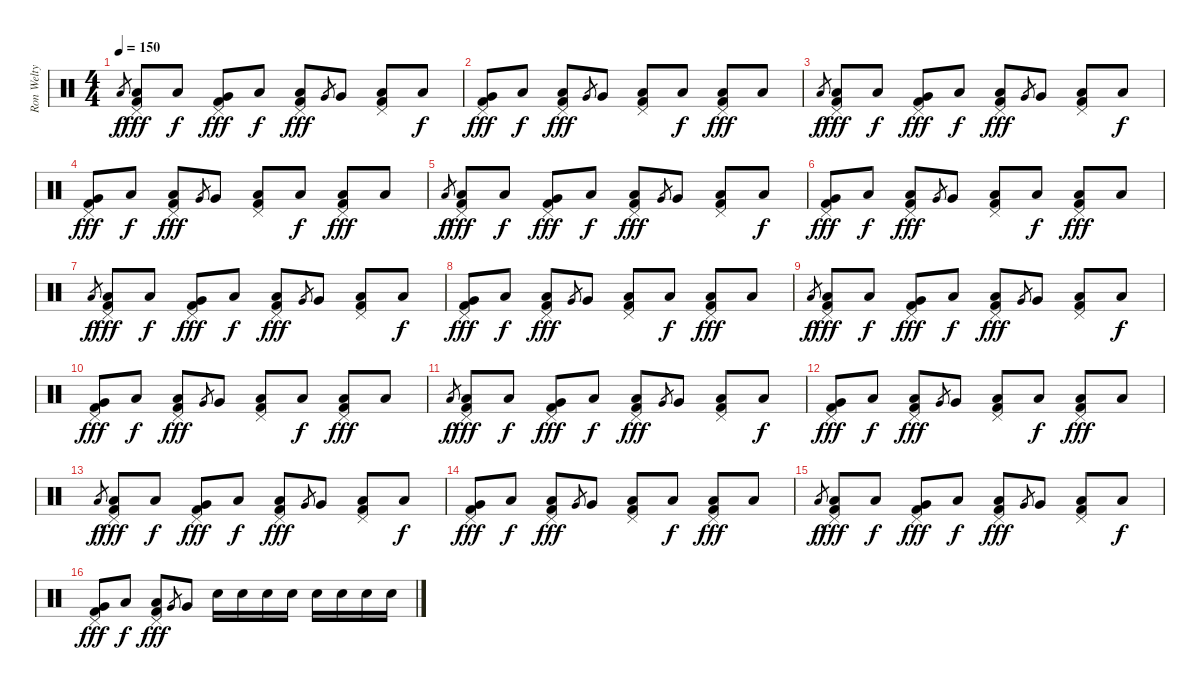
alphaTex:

\track ("Ron Welty" "Ron Welty") {instrument percussion}
\staff {score}
\articulation defaults
\ts (4 4)
\tempo 150
\clef neutral
\ks c "Low Floor Tom (hit)".8{gr dy f}
("Low Floor Tom (hit)" "Pedal Hi-Hat (hit)" "Kick (hit) 2").8{dy fff} "Low Floor Tom (hit)".8{dy f} ("Very Low Tom (hit)" "Pedal Hi-Hat (hit)" "Kick (hit) 2").8{dy fff} "Low Floor Tom (hit)".8{dy f} ("Low Floor Tom (hit)" "Pedal Hi-Hat (hit)" "Kick (hit) 2").8{dy fff} "Very Low Tom (hit)".8{gr} "Very Low Tom (hit)".8 ("Low Floor Tom (hit)" "Pedal Hi-Hat (hit)" "Kick (hit) 2").8 "Low Floor Tom (hit)".8{dy f} |
("Very Low Tom (hit)" "Pedal Hi-Hat (hit)" "Kick (hit) 2").8{dy fff} "Low Floor Tom (hit)".8{dy f} ("Low Floor Tom (hit)" "Pedal Hi-Hat (hit)" "Kick (hit) 2").8{dy fff} "Very Low Tom (hit)".8{gr} "Very Low Tom (hit)".8 ("Low Floor Tom (hit)" "Pedal Hi-Hat (hit)" "Kick (hit) 2").8 "Low Floor Tom (hit)".8{dy f} ("Low Floor Tom (hit)" "Pedal Hi-Hat (hit)" "Kick (hit) 2").8{dy fff} "Low Floor Tom (hit)".8 |
"Low Floor Tom (hit)".8{gr dy f} ("Low Floor Tom (hit)" "Pedal Hi-Hat (hit)" "Kick (hit) 2").8{dy fff} "Low Floor Tom (hit)".8{dy f} ("Very Low Tom (hit)" "Pedal Hi-Hat (hit)" "Kick (hit) 2").8{dy fff} "Low Floor Tom (hit)".8{dy f} ("Low Floor Tom (hit)" "Pedal Hi-Hat (hit)" "Kick (hit) 2").8{dy fff} "Very Low Tom (hit)".8{gr} "Very Low Tom (hit)".8 ("Low Floor Tom (hit)" "Pedal Hi-Hat (hit)" "Kick (hit) 2").8 "Low Floor Tom (hit)".8{dy f} |
("Very Low Tom (hit)" "Pedal Hi-Hat (hit)" "Kick (hit) 2").8{dy fff} "Low Floor Tom (hit)".8{dy f} ("Low Floor Tom (hit)" "Pedal Hi-Hat (hit)" "Kick (hit) 2").8{dy fff} "Very Low Tom (hit)".8{gr} "Very Low Tom (hit)".8 ("Low Floor Tom (hit)" "Pedal Hi-Hat (hit)" "Kick (hit) 2").8 "Low Floor Tom (hit)".8{dy f} ("Low Floor Tom (hit)" "Pedal Hi-Hat (hit)" "Kick (hit) 2").8{dy fff} "Low Floor Tom (hit)".8 |
"Low Floor Tom (hit)".8{gr dy f} ("Low Floor Tom (hit)" "Pedal Hi-Hat (hit)" "Kick (hit) 2").8{dy fff} "Low Floor Tom (hit)".8{dy f} ("Very Low Tom (hit)" "Pedal Hi-Hat (hit)" "Kick (hit) 2").8{dy fff} "Low Floor Tom (hit)".8{dy f} ("Low Floor Tom (hit)" "Pedal Hi-Hat (hit)" "Kick (hit) 2").8{dy fff} "Very Low Tom (hit)".8{gr} "Very Low Tom (hit)".8 ("Low Floor Tom (hit)" "Pedal Hi-Hat (hit)" "Kick (hit) 2").8 "Low Floor Tom (hit)".8{dy f} |
("Very Low Tom (hit)" "Pedal Hi-Hat (hit)" "Kick (hit) 2").8{dy fff} "Low Floor Tom (hit)".8{dy f} ("Low Floor Tom (hit)" "Pedal Hi-Hat (hit)" "Kick (hit) 2").8{dy fff} "Very Low Tom (hit)".8{gr} "Very Low Tom (hit)".8 ("Low Floor Tom (hit)" "Pedal Hi-Hat (hit)" "Kick (hit) 2").8 "Low Floor Tom (hit)".8{dy f} ("Low Floor Tom (hit)" "Pedal Hi-Hat (hit)" "Kick (hit) 2").8{dy fff} "Low Floor Tom (hit)".8 |
"Low Floor Tom (hit)".8{gr dy f} ("Low Floor Tom (hit)" "Pedal Hi-Hat (hit)" "Kick (hit) 2").8{dy fff} "Low Floor Tom (hit)".8{dy f} ("Very Low Tom (hit)" "Pedal Hi-Hat (hit)" "Kick (hit) 2").8{dy fff} "Low Floor Tom (hit)".8{dy f} ("Low Floor Tom (hit)" "Pedal Hi-Hat (hit)" "Kick (hit) 2").8{dy fff} "Very Low Tom (hit)".8{gr} "Very Low Tom (hit)".8 ("Low Floor Tom (hit)" "Pedal Hi-Hat (hit)" "Kick (hit) 2").8 "Low Floor Tom (hit)".8{dy f} |
("Very Low Tom (hit)" "Pedal Hi-Hat (hit)" "Kick (hit) 2").8{dy fff} "Low Floor Tom (hit)".8{dy f} ("Low Floor Tom (hit)" "Pedal Hi-Hat (hit)" "Kick (hit) 2").8{dy fff} "Very Low Tom (hit)".8{gr} "Very Low Tom (hit)".8 ("Low Floor Tom (hit)" "Pedal Hi-Hat (hit)" "Kick (hit) 2").8 "Low Floor Tom (hit)".8{dy f} ("Low Floor Tom (hit)" "Pedal Hi-Hat (hit)" "Kick (hit) 2").8{dy fff} "Low Floor Tom (hit)".8 |
"Low Floor Tom (hit)".8{gr dy f} ("Low Floor Tom (hit)" "Pedal Hi-Hat (hit)" "Kick (hit) 2").8{dy fff} "Low Floor Tom (hit)".8{dy f} ("Very Low Tom (hit)" "Pedal Hi-Hat (hit)" "Kick (hit) 2").8{dy fff} "Low Floor Tom (hit)".8{dy f} ("Low Floor Tom (hit)" "Pedal Hi-Hat (hit)" "Kick (hit) 2").8{dy fff} "Very Low Tom (hit)".8{gr} "Very Low Tom (hit)".8 ("Low Floor Tom (hit)" "Pedal Hi-Hat (hit)" "Kick (hit) 2").8 "Low Floor Tom (hit)".8{dy f} |
("Very Low Tom (hit)" "Pedal Hi-Hat (hit)" "Kick (hit) 2").8{dy fff} "Low Floor Tom (hit)".8{dy f} ("Low Floor Tom (hit)" "Pedal Hi-Hat (hit)" "Kick (hit) 2").8{dy fff} "Very Low Tom (hit)".8{gr} "Very Low Tom (hit)".8 ("Low Floor Tom (hit)" "Pedal Hi-Hat (hit)" "Kick (hit) 2").8 "Low Floor Tom (hit)".8{dy f} ("Low Floor Tom (hit)" "Pedal Hi-Hat (hit)" "Kick (hit) 2").8{dy fff} "Low Floor Tom (hit)".8 |
"Low Floor Tom (hit)".8{gr dy f} ("Low Floor Tom (hit)" "Pedal Hi-Hat (hit)" "Kick (hit) 2").8{dy fff} "Low Floor Tom (hit)".8{dy f} ("Very Low Tom (hit)" "Pedal Hi-Hat (hit)" "Kick (hit) 2").8{dy fff} "Low Floor Tom (hit)".8{dy f} ("Low Floor Tom (hit)" "Pedal Hi-Hat (hit)" "Kick (hit) 2").8{dy fff} "Very Low Tom (hit)".8{gr} "Very Low Tom (hit)".8 ("Low Floor Tom (hit)" "Pedal Hi-Hat (hit)" "Kick (hit) 2").8 "Low Floor Tom (hit)".8{dy f} |
("Very Low Tom (hit)" "Pedal Hi-Hat (hit)" "Kick (hit) 2").8{dy fff} "Low Floor Tom (hit)".8{dy f} ("Low Floor Tom (hit)" "Pedal Hi-Hat (hit)" "Kick (hit) 2").8{dy fff} "Very Low Tom (hit)".8{gr} "Very Low Tom (hit)".8 ("Low Floor Tom (hit)" "Pedal Hi-Hat (hit)" "Kick (hit) 2").8 "Low Floor Tom (hit)".8{dy f} ("Low Floor Tom (hit)" "Pedal Hi-Hat (hit)" "Kick (hit) 2").8{dy fff} "Low Floor Tom (hit)".8 |
"Low Floor Tom (hit)".8{gr dy f} ("Low Floor Tom (hit)" "Pedal Hi-Hat (hit)" "Kick (hit) 2").8{dy fff} "Low Floor Tom (hit)".8{dy f} ("Very Low Tom (hit)" "Pedal Hi-Hat (hit)" "Kick (hit) 2").8{dy fff} "Low Floor Tom (hit)".8{dy f} ("Low Floor Tom (hit)" "Pedal Hi-Hat (hit)" "Kick (hit) 2").8{dy fff} "Very Low Tom (hit)".8{gr} "Very Low Tom (hit)".8 ("Low Floor Tom (hit)" "Pedal Hi-Hat (hit)" "Kick (hit) 2").8 "Low Floor Tom (hit)".8{dy f} |
("Very Low Tom (hit)" "Pedal Hi-Hat (hit)" "Kick (hit) 2").8{dy fff} "Low Floor Tom (hit)".8{dy f} ("Low Floor Tom (hit)" "Pedal Hi-Hat (hit)" "Kick (hit) 2").8{dy fff} "Very Low Tom (hit)".8{gr} "Very Low Tom (hit)".8 ("Low Floor Tom (hit)" "Pedal Hi-Hat (hit)" "Kick (hit) 2").8 "Low Floor Tom (hit)".8{dy f} ("Low Floor Tom (hit)" "Pedal Hi-Hat (hit)" "Kick (hit) 2").8{dy fff} "Low Floor Tom (hit)".8 |
"Low Floor Tom (hit)".8{gr dy f} ("Low Floor Tom (hit)" "Pedal Hi-Hat (hit)" "Kick (hit) 2").8{dy fff} "Low Floor Tom (hit)".8{dy f} ("Very Low Tom (hit)" "Pedal Hi-Hat (hit)" "Kick (hit) 2").8{dy fff} "Low Floor Tom (hit)".8{dy f} ("Low Floor Tom (hit)" "Pedal Hi-Hat (hit)" "Kick (hit) 2").8{dy fff} "Very Low Tom (hit)".8{gr} "Very Low Tom (hit)".8 ("Low Floor Tom (hit)" "Pedal Hi-Hat (hit)" "Kick (hit) 2").8 "Low Floor Tom (hit)".8{dy f} |
("Very Low Tom (hit)" "Pedal Hi-Hat (hit)" "Kick (hit) 2").8{dy fff} "Low Floor Tom (hit)".8{dy f} ("Low Floor Tom (hit)" "Pedal Hi-Hat (hit)" "Kick (hit) 2").8{dy fff} "Very Low Tom (hit)".8{gr} "Very Low Tom (hit)".8 "Snare (hit) 2".16 "Snare (hit) 2".16 "Snare (hit) 2".16 "Snare (hit) 2".16 "Snare (hit) 2".16 "Snare (hit) 2".16 "Snare (hit) 2".16 "Snare (hit) 2".16
